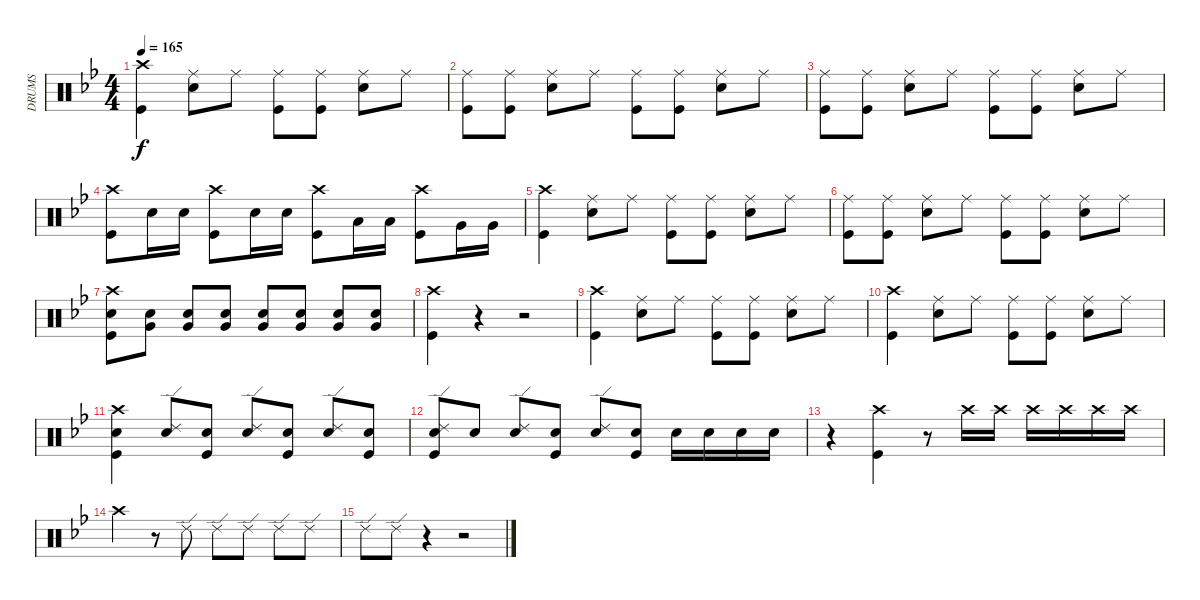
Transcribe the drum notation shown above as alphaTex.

\track ("DRUMS" "DRUMS") {instrument percussion}
\staff {score}
\articulation defaults
\ts (4 4)
\tempo 165
\clef neutral
\ks bb
("Crash high (hit)" "Kick (hit)").4{dy f} ("Ride (middle)" "Electric Snare (hit)").8 "Ride (middle)".8 ("Ride (middle)" "Kick (hit)").8 ("Ride (middle)" "Kick (hit)").8 ("Ride (middle)" "Electric Snare (hit)").8 "Ride (middle)".8 |
("Ride (middle)" "Kick (hit)").8 ("Ride (middle)" "Kick (hit)").8 ("Ride (middle)" "Electric Snare (hit)").8 "Ride (middle)".8 ("Ride (middle)" "Kick (hit)").8 ("Ride (middle)" "Kick (hit)").8 ("Ride (middle)" "Electric Snare (hit)").8 "Ride (middle)".8 |
("Ride (middle)" "Kick (hit)").8 ("Ride (middle)" "Kick (hit)").8 ("Ride (middle)" "Electric Snare (hit)").8 "Ride (middle)".8 ("Ride (middle)" "Kick (hit)").8 ("Ride (middle)" "Kick (hit)").8 ("Ride (middle)" "Electric Snare (hit)").8 "Ride (middle)".8 |
("Crash high (hit)" "Kick (hit)").8 "Electric Snare (hit)".16 "Electric Snare (hit)".16 ("Crash high (hit)" "Kick (hit)").8 "Electric Snare (hit)".16 "Electric Snare (hit)".16 ("Crash high (hit)" "Kick (hit)").8 "Low Tom (hit)".16 "Low Tom (hit)".16 ("Crash high (hit)" "Kick (hit)").8 "Very Low Tom (hit)".16 "Very Low Tom (hit)".16 |
("Crash high (hit)" "Kick (hit)").4 ("Ride (middle)" "Electric Snare (hit)").8 "Ride (middle)".8 ("Ride (middle)" "Kick (hit)").8 ("Ride (middle)" "Kick (hit)").8 ("Ride (middle)" "Electric Snare (hit)").8 "Ride (middle)".8 |
("Ride (middle)" "Kick (hit)").8 ("Ride (middle)" "Kick (hit)").8 ("Ride (middle)" "Electric Snare (hit)").8 "Ride (middle)".8 ("Ride (middle)" "Kick (hit)").8 ("Ride (middle)" "Kick (hit)").8 ("Ride (middle)" "Electric Snare (hit)").8 "Ride (middle)".8 |
("Crash high (hit)" "Electric Snare (hit)" "Kick (hit)").8 ("Electric Snare (hit)" "Very Low Tom (hit)").8 ("Electric Snare (hit)" "Very Low Tom (hit)").8 ("Electric Snare (hit)" "Very Low Tom (hit)").8 ("Electric Snare (hit)" "Very Low Tom (hit)").8 ("Electric Snare (hit)" "Very Low Tom (hit)").8 ("Electric Snare (hit)" "Very Low Tom (hit)").8 ("Electric Snare (hit)" "Very Low Tom (hit)").8 |
("Crash high (hit)" "Kick (hit)").4 r.4 r.2 |
("Crash high (hit)" "Kick (hit)").4 ("Ride (middle)" "Electric Snare (hit)").8 "Ride (middle)".8 ("Ride (middle)" "Kick (hit)").8 ("Ride (middle)" "Kick (hit)").8 ("Ride (middle)" "Electric Snare (hit)").8 "Ride (middle)".8 |
("Crash high (hit)" "Kick (hit)").4 ("Ride (middle)" "Electric Snare (hit)").8 "Ride (middle)".8 ("Ride (middle)" "Kick (hit)").8 ("Ride (middle)" "Kick (hit)").8 ("Ride (middle)" "Electric Snare (hit)").8 "Ride (middle)".8 |
("Crash high (hit)" "Electric Snare (hit)" "Kick (hit)").4 ("Ride (edge) 2" "Electric Snare (hit)").8 ("Electric Snare (hit)" "Kick (hit)").8 ("Ride (edge) 2" "Electric Snare (hit)").8 ("Electric Snare (hit)" "Kick (hit)").8 ("Ride (edge) 2" "Electric Snare (hit)").8 ("Electric Snare (hit)" "Kick (hit)").8 |
("Ride (edge) 2" "Electric Snare (hit)" "Kick (hit)").8 "Electric Snare (hit)".8 ("Ride (edge) 2" "Electric Snare (hit)").8 ("Electric Snare (hit)" "Kick (hit)").8 ("Ride (edge) 2" "Electric Snare (hit)").8 ("Electric Snare (hit)" "Kick (hit)").8 "Electric Snare (hit)".16 "Electric Snare (hit)".16 "Electric Snare (hit)".16 "Electric Snare (hit)".16 |
r.4 ("Crash high (hit)" "Kick (hit)").4 r.8 "Crash high (hit)".16 "Crash high (hit)".16 "Crash high (hit)".16 "Crash high (hit)".16 "Crash high (hit)".16 "Crash high (hit)".16 |
"Crash high (hit)".4 r.8 "Ride (edge) 2".8 "Ride (edge) 2".8 "Ride (edge) 2".8 "Ride (edge) 2".8 "Ride (edge) 2".8 |
"Ride (edge) 2".8 "Ride (edge) 2".8 r.4 r.2
